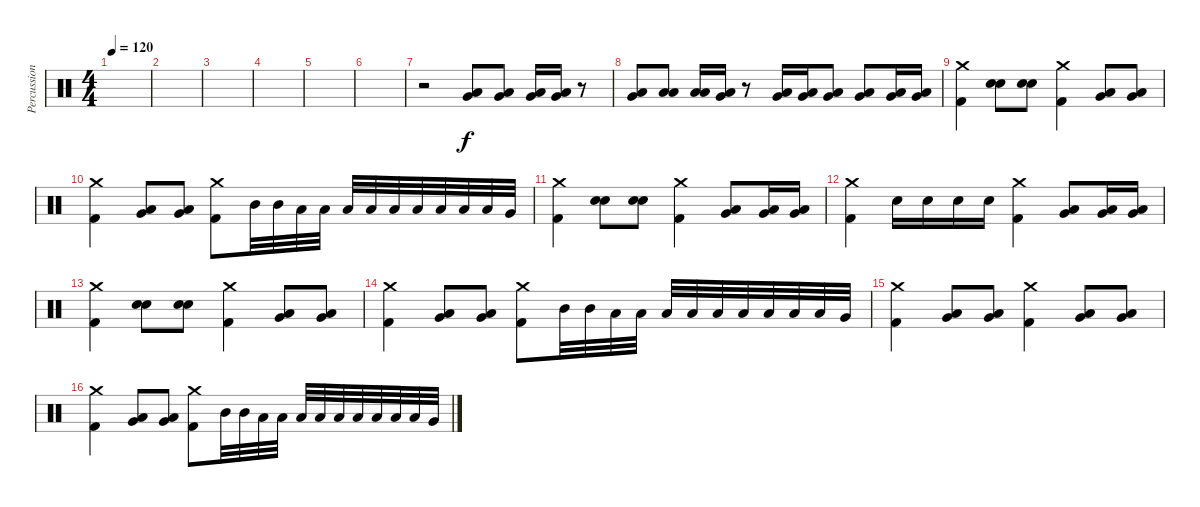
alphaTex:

\track ("Percussion" "Percussion") {instrument percussion}
\staff {score}
\articulation defaults
\ts (4 4)
\tempo 120
\clef neutral
\ks c
|
|
|
|
|
|
r.2 ("Very Low Tom (hit)" "Low Tom (hit)").8 ("Low Tom (hit)" "Very Low Tom (hit)").8 ("Low Tom (hit)" "Very Low Tom (hit)").16 ("Low Tom (hit)" "Very Low Tom (hit)").16 r.8 |
("Low Tom (hit)" "Very Low Tom (hit)").8 ("Low Floor Tom (hit)" "Low Tom (hit)").8 ("Low Floor Tom (hit)" "Low Tom (hit)").16 ("Low Tom (hit)" "Very Low Tom (hit)").16 r.8 ("Low Tom (hit)" "Very Low Tom (hit)").16 ("Low Tom (hit)" "Very Low Tom (hit)").16 ("Low Tom (hit)" "Very Low Tom (hit)").8 ("Low Tom (hit)" "Very Low Tom (hit)").8 ("Low Tom (hit)" "Very Low Tom (hit)").16 ("Low Tom (hit)" "Very Low Tom (hit)").16 |
("Crash medium (hit)" "Kick (hit) 2").4 ("Electric Snare (hit)" "Electric Snare (hit)").8 ("Electric Snare (hit)" "Electric Snare (hit)").8 ("Crash medium (hit)" "Kick (hit) 2").4 ("Low Tom (hit)" "Very Low Tom (hit)").8 ("Low Tom (hit)" "Very Low Tom (hit)").8 |
("Crash medium (hit)" "Kick (hit) 2").4 ("Low Tom (hit)" "Very Low Tom (hit)").8 ("Low Tom (hit)" "Very Low Tom (hit)").8 ("Kick (hit) 2" "Crash medium (hit)").8 "Mid Tom (hit)".32 "Mid Tom (hit)".32 "Low Tom (hit)".32 "Low Tom (hit)".32 "Low Tom (hit)".32 "Low Tom (hit)".32 "Low Tom (hit)".32 "Low Tom (hit)".32 "Low Tom (hit)".32 "Low Tom (hit)".32 "Low Tom (hit)".32 "Very Low Tom (hit)".32 |
("Crash medium (hit)" "Kick (hit) 2").4 ("Electric Snare (hit)" "Electric Snare (hit)").8 ("Electric Snare (hit)" "Electric Snare (hit)").8 ("Crash medium (hit)" "Kick (hit) 2").4 ("Low Tom (hit)" "Very Low Tom (hit)").8 ("Low Tom (hit)" "Very Low Tom (hit)").16 ("Low Tom (hit)" "Very Low Tom (hit)").16 |
("Crash medium (hit)" "Kick (hit) 2").4 "Electric Snare (hit)".16 "Electric Snare (hit)".16 "Electric Snare (hit)".16 "Electric Snare (hit)".16 ("Kick (hit) 2" "Crash medium (hit)").4 ("Low Tom (hit)" "Very Low Tom (hit)").8 ("Low Tom (hit)" "Very Low Tom (hit)").16 ("Low Tom (hit)" "Very Low Tom (hit)").16 |
("Crash medium (hit)" "Kick (hit) 2").4 ("Electric Snare (hit)" "Electric Snare (hit)").8 ("Electric Snare (hit)" "Electric Snare (hit)").8 ("Crash medium (hit)" "Kick (hit) 2").4 ("Low Tom (hit)" "Very Low Tom (hit)").8 ("Low Tom (hit)" "Very Low Tom (hit)").8 |
("Crash medium (hit)" "Kick (hit) 2").4 ("Low Tom (hit)" "Very Low Tom (hit)").8 ("Low Tom (hit)" "Very Low Tom (hit)").8 ("Kick (hit) 2" "Crash medium (hit)").8 "Mid Tom (hit)".32 "Mid Tom (hit)".32 "Low Tom (hit)".32 "Low Tom (hit)".32 "Low Tom (hit)".32 "Low Tom (hit)".32 "Low Tom (hit)".32 "Low Tom (hit)".32 "Low Tom (hit)".32 "Low Tom (hit)".32 "Low Tom (hit)".32 "Very Low Tom (hit)".32 |
("Crash medium (hit)" "Kick (hit) 2").4 ("Very Low Tom (hit)" "Low Floor Tom (hit)").8 ("Low Tom (hit)" "Very Low Tom (hit)").8 ("Crash medium (hit)" "Kick (hit) 2").4 ("Low Tom (hit)" "Very Low Tom (hit)").8 ("Low Tom (hit)" "Very Low Tom (hit)").8 |
("Crash medium (hit)" "Kick (hit) 2").4 ("Low Tom (hit)" "Very Low Tom (hit)").8 ("Low Tom (hit)" "Very Low Tom (hit)").8 ("Kick (hit) 2" "Crash medium (hit)").8 "Mid Tom (hit)".32 "Mid Tom (hit)".32 "Low Tom (hit)".32 "Low Tom (hit)".32 "Low Tom (hit)".32 "Low Tom (hit)".32 "Low Tom (hit)".32 "Low Tom (hit)".32 "Low Tom (hit)".32 "Low Tom (hit)".32 "Low Tom (hit)".32 "Very Low Tom (hit)".32
